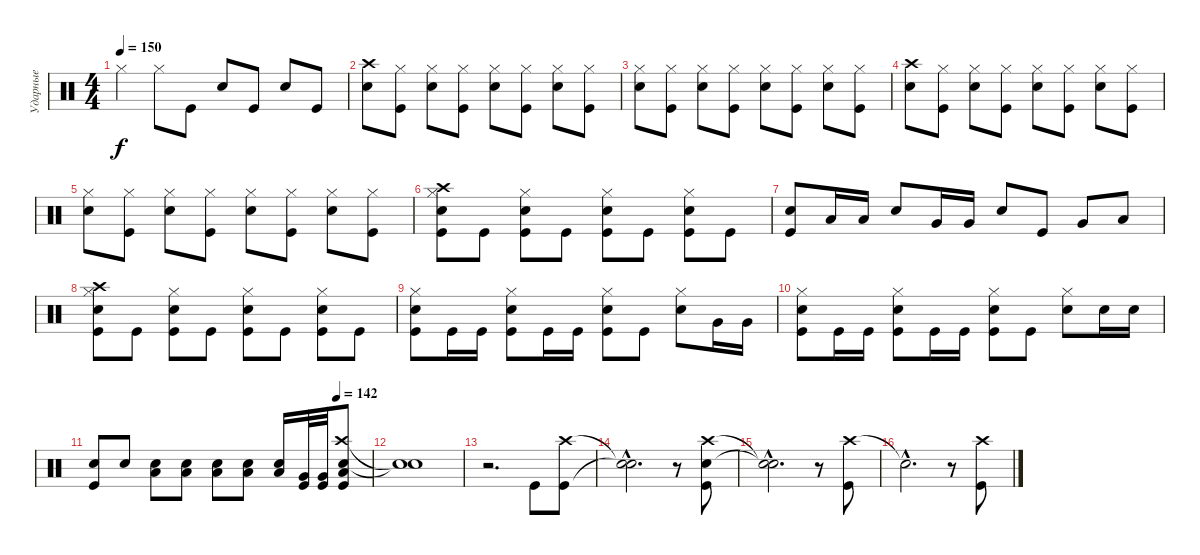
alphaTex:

\track ("Ударные" "Ударные") {instrument percussion}
\staff {score}
\articulation defaults
\ts (4 4)
\tempo 150
\clef neutral
\ks c "Hi-Hat (closed)".4{dy f} "Hi-Hat (closed)".8 "Kick (hit)".8 "Electric Snare (hit)".8 "Kick (hit)".8 "Electric Snare (hit)".8 "Kick (hit)".8
|
("Crash high (hit)" "Electric Snare (hit)").8 ("Hi-Hat (closed)" "Kick (hit)").8 ("Hi-Hat (closed)" "Electric Snare (hit)").8 ("Hi-Hat (closed)" "Kick (hit)").8 ("Hi-Hat (closed)" "Electric Snare (hit)").8 ("Hi-Hat (closed)" "Kick (hit)").8 ("Hi-Hat (closed)" "Electric Snare (hit)").8 ("Hi-Hat (closed)" "Kick (hit)").8 |
("Hi-Hat (closed)" "Electric Snare (hit)").8 ("Hi-Hat (closed)" "Kick (hit)").8 ("Hi-Hat (closed)" "Electric Snare (hit)").8 ("Hi-Hat (closed)" "Kick (hit)").8 ("Hi-Hat (closed)" "Electric Snare (hit)").8 ("Hi-Hat (closed)" "Kick (hit)").8 ("Hi-Hat (closed)" "Electric Snare (hit)").8 ("Hi-Hat (closed)" "Kick (hit)").8 |
("Crash high (hit)" "Electric Snare (hit)").8 ("Hi-Hat (closed)" "Kick (hit)").8 ("Hi-Hat (closed)" "Electric Snare (hit)").8 ("Hi-Hat (closed)" "Kick (hit)").8 ("Hi-Hat (closed)" "Electric Snare (hit)").8 ("Hi-Hat (closed)" "Kick (hit)").8 ("Hi-Hat (closed)" "Electric Snare (hit)").8 ("Hi-Hat (closed)" "Kick (hit)").8 |
("Hi-Hat (closed)" "Electric Snare (hit)").8 ("Hi-Hat (closed)" "Kick (hit)").8 ("Hi-Hat (closed)" "Electric Snare (hit)").8 ("Hi-Hat (closed)" "Kick (hit)").8 ("Hi-Hat (closed)" "Electric Snare (hit)").8 ("Hi-Hat (closed)" "Kick (hit)").8 ("Hi-Hat (closed)" "Electric Snare (hit)").8 ("Hi-Hat (closed)" "Kick (hit)").8 |
("Crash high (hit)" "Hi-Hat (closed)" "Electric Snare (hit)" "Kick (hit)").8 "Kick (hit)".8 ("Hi-Hat (closed)" "Electric Snare (hit)" "Kick (hit)").8 "Kick (hit)".8 ("Hi-Hat (closed)" "Electric Snare (hit)" "Kick (hit)").8 "Kick (hit)".8 ("Hi-Hat (closed)" "Electric Snare (hit)" "Kick (hit)").8 "Kick (hit)".8 |
("Electric Snare (hit)" "Kick (hit)").8 "Low Tom (hit)".16 "Low Tom (hit)".16 "Electric Snare (hit)".8 "Very Low Tom (hit)".16 "Very Low Tom (hit)".16 "Electric Snare (hit)".8 "Kick (hit)".8 "Very Low Tom (hit)".8 "Low Tom (hit)".8 |
("Crash high (hit)" "Hi-Hat (closed)" "Electric Snare (hit)" "Kick (hit)").8 "Kick (hit)".8 ("Hi-Hat (closed)" "Electric Snare (hit)" "Kick (hit)").8 "Kick (hit)".8 ("Hi-Hat (closed)" "Electric Snare (hit)" "Kick (hit)").8 "Kick (hit)".8 ("Hi-Hat (closed)" "Electric Snare (hit)" "Kick (hit)").8 "Kick (hit)".8 |
("Hi-Hat (closed)" "Electric Snare (hit)" "Kick (hit)").8 "Kick (hit)".16 "Kick (hit)".16 ("Hi-Hat (closed)" "Electric Snare (hit)" "Kick (hit)").8 "Kick (hit)".16 "Kick (hit)".16 ("Hi-Hat (closed)" "Electric Snare (hit)" "Kick (hit)").8 "Kick (hit)".8 ("Hi-Hat (closed)" "Electric Snare (hit)").8 "Very Low Tom (hit)".16 "Very Low Tom (hit)".16 |
("Hi-Hat (closed)" "Electric Snare (hit)" "Kick (hit)").8 "Kick (hit)".16 "Kick (hit)".16 ("Hi-Hat (closed)" "Electric Snare (hit)" "Kick (hit)").8 "Kick (hit)".16 "Kick (hit)".16 ("Hi-Hat (closed)" "Electric Snare (hit)" "Kick (hit)").8 "Kick (hit)".8 ("Hi-Hat (closed)" "Electric Snare (hit)").8 "Electric Snare (hit)".16 "Electric Snare (hit)".16 |
\tempo (142 0.875)
("Electric Snare (hit)" "Kick (hit)").8 "Electric Snare (hit)".8 ("Electric Snare (hit)" "Low Tom (hit)").8 ("Electric Snare (hit)" "Low Tom (hit)").8 ("Electric Snare (hit)" "Low Tom (hit)").8 ("Electric Snare (hit)" "Low Tom (hit)").8 ("Electric Snare (hit)" "Low Tom (hit)").16 ("Very Low Tom (hit)" "Kick (hit)").32 ("Very Low Tom (hit)" "Kick (hit)").32 ("Crash high (hit)" "Electric Snare (hit)" "Low Tom (hit)" "Kick (hit)").8 |
("Snare (hit)"{t} "Snare (hit)"{t}).1 |
r.2{d} "Kick (hit)".8 ("Crash high (hit)" "Kick (hit)").8 |
("Snare (hit)"{hac t} "Snare (hit)"{hac t}).2{d} r.8 ("Crash high (hit)" "Electric Snare (hit)" "Kick (hit)").8 |
("Snare (hit)"{hac t} "Snare (hit)"{hac t}).2{d} r.8 ("Crash high (hit)" "Kick (hit)").8 |
"Snare (hit)"{hac t}.2{d} r.8 ("Crash high (hit)" "Kick (hit)").8
